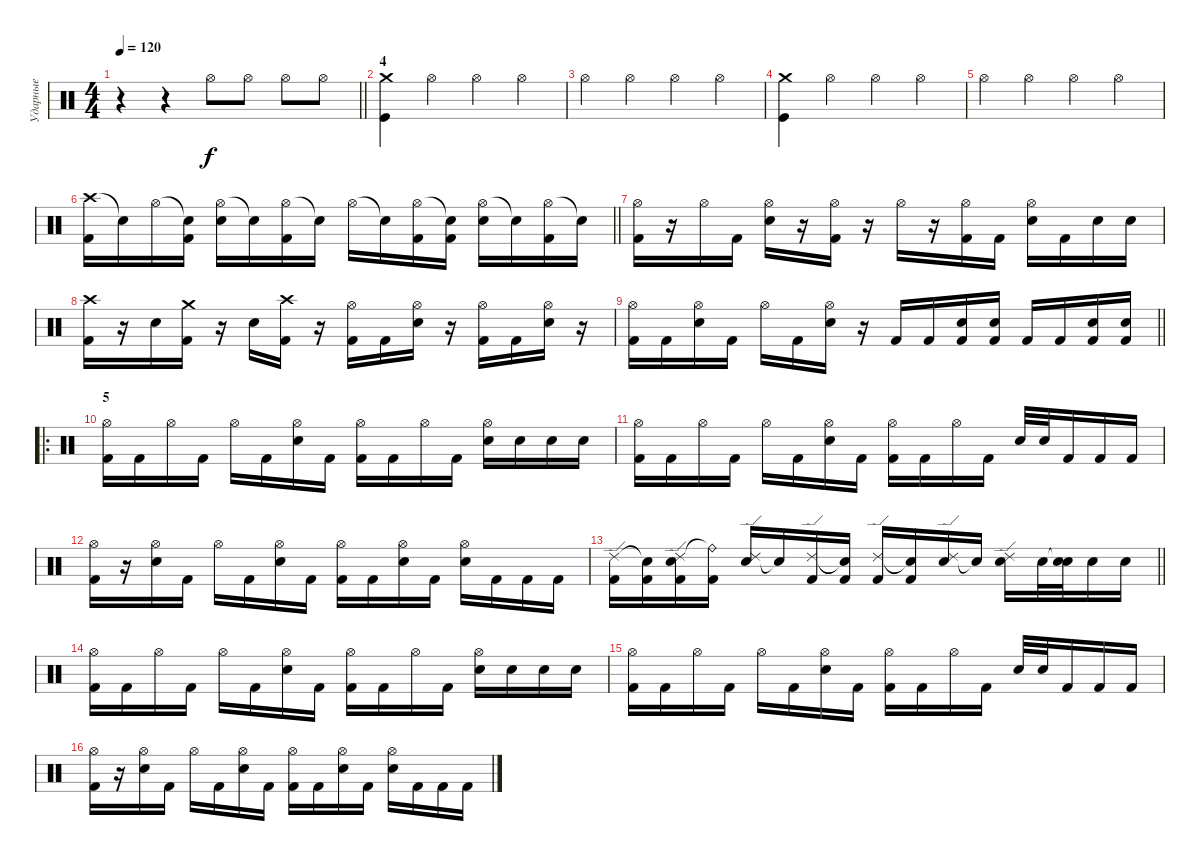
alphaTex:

\track ("Ударные" "Ударные") {instrument percussion}
\staff {score}
\articulation defaults
\ts (4 4)
\tempo 120
\clef neutral
\barLineRight lightlight
\ks c
r.4{dy f} r.4 "Hi-Hat (open)".8 "Hi-Hat (open)".8 "Hi-Hat (open)".8 "Hi-Hat (open)".8 |
\section ("" "4")
("Crash medium (hit)" "Kick (hit)").4 "Hi-Hat (open)".4 "Hi-Hat (open)".4 "Hi-Hat (open)".4 |
"Hi-Hat (open)".4 "Hi-Hat (open)".4 "Hi-Hat (open)".4 "Hi-Hat (open)".4 |
("Crash medium (hit)" "Kick (hit)").4 "Hi-Hat (open)".4 "Hi-Hat (open)".4 "Hi-Hat (open)".4 |
"Hi-Hat (open)".4 "Hi-Hat (open)".4 "Hi-Hat (open)".4 "Hi-Hat (open)".4 |
\barLineRight lightlight
("Crash high (hit)" "Kick (hit) 2").16 "Snare (hit)"{t}.16 "Hi-Hat (open)".16 ("Snare (hit)"{t} "Kick (hit) 2").16 ("Hi-Hat (open)" "Electric Snare (hit)").16 "Snare (hit)"{t}.16 ("Hi-Hat (open)" "Kick (hit) 2").16 "Snare (hit)"{t}.16 "Hi-Hat (open)".16 "Snare (hit)"{t}.16 ("Hi-Hat (open)" "Kick (hit) 2").16 ("Snare (hit)"{t} "Kick (hit) 2").16 ("Hi-Hat (open)" "Electric Snare (hit)").16 "Snare (hit)"{t}.16 ("Hi-Hat (open)" "Kick (hit) 2").16 "Snare (hit)"{t}.16 |
("Hi-Hat (open)" "Kick (hit) 2").16 r.16 "Hi-Hat (open)".16 "Kick (hit) 2".16 ("Hi-Hat (open)" "Electric Snare (hit)").16 r.16 ("Hi-Hat (open)" "Kick (hit) 2").16 r.16 "Hi-Hat (open)".16 r.16 ("Hi-Hat (open)" "Kick (hit) 2").16 "Kick (hit) 2".16 ("Hi-Hat (open)" "Electric Snare (hit)").16 "Kick (hit) 2".16 "Electric Snare (hit)".16 "Electric Snare (hit)".16 |
("Crash high (hit)" "Kick (hit) 2").16 r.16 "Electric Snare (hit)".16 ("Crash medium (hit)" "Kick (hit) 2").16 r.16 "Electric Snare (hit)".16 ("Crash high (hit)" "Kick (hit) 2").16 r.16 ("Hi-Hat (open)" "Kick (hit) 2").16 "Kick (hit) 2".16 ("Hi-Hat (open)" "Electric Snare (hit)").16 r.16 ("Hi-Hat (open)" "Kick (hit) 2").16 "Kick (hit) 2".16 ("Hi-Hat (open)" "Electric Snare (hit)").16 r.16 |
\barLineRight lightlight
("Hi-Hat (open)" "Kick (hit) 2").16 "Kick (hit) 2".16 ("Hi-Hat (open)" "Electric Snare (hit)").16 "Kick (hit) 2".16 "Hi-Hat (open)".16 "Kick (hit) 2".16 ("Hi-Hat (open)" "Electric Snare (hit)").16 r.16 "Kick (hit) 2".16 "Kick (hit) 2".16 ("Electric Snare (hit)" "Kick (hit) 2").16 ("Electric Snare (hit)" "Kick (hit) 2").16 "Kick (hit) 2".16 "Kick (hit) 2".16 ("Electric Snare (hit)" "Kick (hit) 2").16 ("Electric Snare (hit)" "Kick (hit) 2").16 |
\ro
\section ("" "5")
("Hi-Hat (open)" "Kick (hit) 2").16 "Kick (hit) 2".16 "Hi-Hat (open)".16 "Kick (hit) 2".16 "Hi-Hat (open)".16 "Kick (hit) 2".16 ("Hi-Hat (open)" "Electric Snare (hit)").16 "Kick (hit) 2".16 ("Hi-Hat (open)" "Kick (hit) 2").16 "Kick (hit) 2".16 "Hi-Hat (open)".16 "Kick (hit) 2".16 ("Hi-Hat (open)" "Electric Snare (hit)").16 "Electric Snare (hit)".16 "Electric Snare (hit)".16 "Electric Snare (hit)".16 |
("Hi-Hat (open)" "Kick (hit) 2").16 "Kick (hit) 2".16 "Hi-Hat (open)".16 "Kick (hit) 2".16 "Hi-Hat (open)".16 "Kick (hit) 2".16 ("Hi-Hat (open)" "Electric Snare (hit)").16 "Kick (hit) 2".16 ("Hi-Hat (open)" "Kick (hit) 2").16 "Kick (hit) 2".16 "Hi-Hat (open)".16 "Kick (hit) 2".16 "Electric Snare (hit)".32 "Electric Snare (hit)".32 "Kick (hit) 2".16 "Kick (hit) 2".16 "Kick (hit) 2".16 |
("Hi-Hat (open)" "Kick (hit) 2").16 r.16 ("Hi-Hat (open)" "Electric Snare (hit)").16 "Kick (hit) 2".16 "Hi-Hat (open)".16 "Kick (hit) 2".16 ("Hi-Hat (open)" "Electric Snare (hit)").16 "Kick (hit) 2".16 ("Hi-Hat (open)" "Kick (hit) 2").16 "Kick (hit) 2".16 ("Hi-Hat (open)" "Electric Snare (hit)").16 "Kick (hit) 2".16 ("Hi-Hat (open)" "Electric Snare (hit)").16 "Kick (hit) 2".16 "Kick (hit) 2".16 "Kick (hit) 2".16 |
\barLineRight lightlight
("Ride (edge) 2" "Kick (hit) 2").16 ("Snare (hit)"{t} "Kick (hit) 2").16 ("Ride (edge) 2" "Electric Snare (hit)" "Kick (hit) 2").16 ("Ride (bell)"{t} "Kick (hit) 2").16 ("Ride (edge) 2" "Electric Snare (hit)").16 "Snare (hit)"{t}.16 ("Ride (edge) 2" "Kick (hit) 2").16 ("Snare (hit)"{t} "Kick (hit) 2").16 ("Ride (edge) 2" "Kick (hit) 2").16 ("Snare (hit)"{t} "Kick (hit) 2").16 ("Ride (edge) 2" "Electric Snare (hit)").16 "Snare (hit)"{t}.16 ("Ride (edge) 2" "Electric Snare (hit)").16 "Electric Snare (hit)".32 ("Snare (hit)"{t} "Electric Snare (hit)").32 "Electric Snare (hit)".16 "Electric Snare (hit)".16 |
("Hi-Hat (open)" "Kick (hit) 2").16 "Kick (hit) 2".16 "Hi-Hat (open)".16 "Kick (hit) 2".16 "Hi-Hat (open)".16 "Kick (hit) 2".16 ("Hi-Hat (open)" "Electric Snare (hit)").16 "Kick (hit) 2".16 ("Hi-Hat (open)" "Kick (hit) 2").16 "Kick (hit) 2".16 "Hi-Hat (open)".16 "Kick (hit) 2".16 ("Hi-Hat (open)" "Electric Snare (hit)").16 "Electric Snare (hit)".16 "Electric Snare (hit)".16 "Electric Snare (hit)".16 |
("Hi-Hat (open)" "Kick (hit) 2").16 "Kick (hit) 2".16 "Hi-Hat (open)".16 "Kick (hit) 2".16 "Hi-Hat (open)".16 "Kick (hit) 2".16 ("Hi-Hat (open)" "Electric Snare (hit)").16 "Kick (hit) 2".16 ("Hi-Hat (open)" "Kick (hit) 2").16 "Kick (hit) 2".16 "Hi-Hat (open)".16 "Kick (hit) 2".16 "Electric Snare (hit)".32 "Electric Snare (hit)".32 "Kick (hit) 2".16 "Kick (hit) 2".16 "Kick (hit) 2".16 |
("Hi-Hat (open)" "Kick (hit) 2").16 r.16 ("Hi-Hat (open)" "Electric Snare (hit)").16 "Kick (hit) 2".16 "Hi-Hat (open)".16 "Kick (hit) 2".16 ("Hi-Hat (open)" "Electric Snare (hit)").16 "Kick (hit) 2".16 ("Hi-Hat (open)" "Kick (hit) 2").16 "Kick (hit) 2".16 ("Hi-Hat (open)" "Electric Snare (hit)").16 "Kick (hit) 2".16 ("Hi-Hat (open)" "Electric Snare (hit)").16 "Kick (hit) 2".16 "Kick (hit) 2".16 "Kick (hit) 2".16
